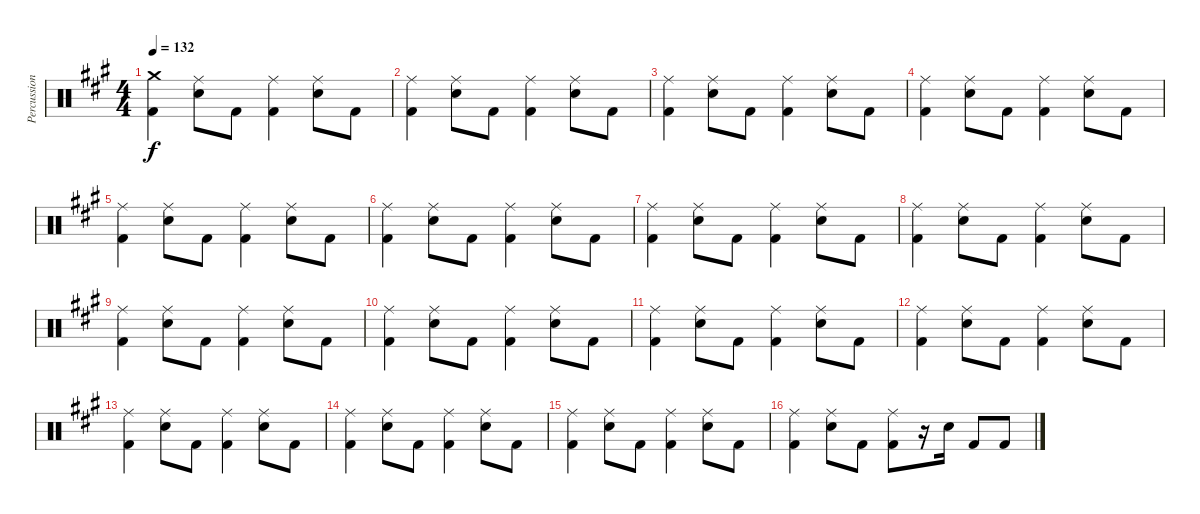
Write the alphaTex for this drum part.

\track ("Percussion" "Percussion") {instrument percussion}
\staff {score}
\articulation defaults
\ts (4 4)
\tempo 132
\clef neutral
\ks a
("Crash medium (hit)" "Kick (hit) 2").4{dy f} ("Ride (middle)" "Snare (hit) 2").8 "Kick (hit) 2".8 ("Ride (middle)" "Kick (hit) 2").4 ("Ride (middle)" "Snare (hit) 2").8 "Kick (hit) 2".8 |
("Ride (middle)" "Kick (hit) 2").4 ("Ride (middle)" "Snare (hit) 2").8 "Kick (hit) 2".8 ("Ride (middle)" "Kick (hit) 2").4 ("Ride (middle)" "Snare (hit) 2").8 "Kick (hit) 2".8 |
("Ride (middle)" "Kick (hit) 2").4 ("Ride (middle)" "Snare (hit) 2").8 "Kick (hit) 2".8 ("Ride (middle)" "Kick (hit) 2").4 ("Ride (middle)" "Snare (hit) 2").8 "Kick (hit) 2".8 |
("Ride (middle)" "Kick (hit) 2").4 ("Ride (middle)" "Snare (hit) 2").8 "Kick (hit) 2".8 ("Ride (middle)" "Kick (hit) 2").4 ("Ride (middle)" "Snare (hit) 2").8 "Kick (hit) 2".8 |
("Ride (middle)" "Kick (hit) 2").4 ("Ride (middle)" "Snare (hit) 2").8 "Kick (hit) 2".8 ("Ride (middle)" "Kick (hit) 2").4 ("Ride (middle)" "Snare (hit) 2").8 "Kick (hit) 2".8 |
("Ride (middle)" "Kick (hit) 2").4 ("Ride (middle)" "Snare (hit) 2").8 "Kick (hit) 2".8 ("Ride (middle)" "Kick (hit) 2").4 ("Ride (middle)" "Snare (hit) 2").8 "Kick (hit) 2".8 |
("Ride (middle)" "Kick (hit) 2").4 ("Ride (middle)" "Snare (hit) 2").8 "Kick (hit) 2".8 ("Ride (middle)" "Kick (hit) 2").4 ("Ride (middle)" "Snare (hit) 2").8 "Kick (hit) 2".8 |
("Ride (middle)" "Kick (hit) 2").4 ("Ride (middle)" "Snare (hit) 2").8 "Kick (hit) 2".8 ("Ride (middle)" "Kick (hit) 2").4 ("Ride (middle)" "Snare (hit) 2").8 "Kick (hit) 2".8 |
("Ride (middle)" "Kick (hit) 2").4 ("Ride (middle)" "Snare (hit) 2").8 "Kick (hit) 2".8 ("Ride (middle)" "Kick (hit) 2").4 ("Ride (middle)" "Snare (hit) 2").8 "Kick (hit) 2".8 |
("Ride (middle)" "Kick (hit) 2").4 ("Ride (middle)" "Snare (hit) 2").8 "Kick (hit) 2".8 ("Ride (middle)" "Kick (hit) 2").4 ("Ride (middle)" "Snare (hit) 2").8 "Kick (hit) 2".8 |
("Ride (middle)" "Kick (hit) 2").4 ("Ride (middle)" "Snare (hit) 2").8 "Kick (hit) 2".8 ("Ride (middle)" "Kick (hit) 2").4 ("Ride (middle)" "Snare (hit) 2").8 "Kick (hit) 2".8 |
("Ride (middle)" "Kick (hit) 2").4 ("Ride (middle)" "Snare (hit) 2").8 "Kick (hit) 2".8 ("Ride (middle)" "Kick (hit) 2").4 ("Ride (middle)" "Snare (hit) 2").8 "Kick (hit) 2".8 |
("Ride (middle)" "Kick (hit) 2").4 ("Ride (middle)" "Snare (hit) 2").8 "Kick (hit) 2".8 ("Ride (middle)" "Kick (hit) 2").4 ("Ride (middle)" "Snare (hit) 2").8 "Kick (hit) 2".8 |
("Ride (middle)" "Kick (hit) 2").4 ("Ride (middle)" "Snare (hit) 2").8 "Kick (hit) 2".8 ("Ride (middle)" "Kick (hit) 2").4 ("Ride (middle)" "Snare (hit) 2").8 "Kick (hit) 2".8 |
("Ride (middle)" "Kick (hit) 2").4 ("Ride (middle)" "Snare (hit) 2").8 "Kick (hit) 2".8 ("Ride (middle)" "Kick (hit) 2").4 ("Ride (middle)" "Snare (hit) 2").8 "Kick (hit) 2".8 |
("Ride (middle)" "Kick (hit) 2").4 ("Ride (middle)" "Snare (hit) 2").8 "Kick (hit) 2".8 ("Ride (middle)" "Kick (hit) 2").8 r.16 "Snare (hit) 2".16 "Kick (hit) 2".8 "Kick (hit) 2".8
